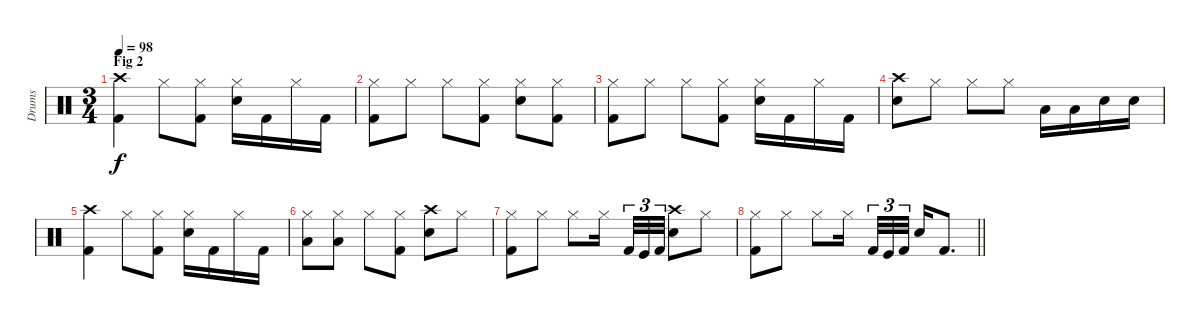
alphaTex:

\track ("Drums" "Drums") {instrument percussion}
\staff {score}
\articulation defaults
\ts (3 4)
\section ("" "Fig 2")
\tempo 98
\clef neutral
\ks c
("Crash high (hit)" "Kick (hit) 2").4{dy f} "Hi-Hat (closed)".8 ("Hi-Hat (closed)" "Kick (hit) 2").8 ("Hi-Hat (closed)" "Snare (hit) 2").16 "Kick (hit) 2".16 "Hi-Hat (closed)".16 "Kick (hit) 2".16 |
("Hi-Hat (closed)" "Kick (hit) 2").8 "Hi-Hat (closed)".8 "Hi-Hat (closed)".8 ("Hi-Hat (closed)" "Kick (hit) 2").8 ("Hi-Hat (closed)" "Snare (hit) 2").8 ("Hi-Hat (closed)" "Kick (hit) 2").8 |
("Hi-Hat (closed)" "Kick (hit) 2").8 "Hi-Hat (closed)".8 "Hi-Hat (closed)".8 ("Hi-Hat (closed)" "Kick (hit) 2").8 ("Hi-Hat (closed)" "Snare (hit) 2").16 "Kick (hit) 2".16 "Hi-Hat (closed)".16 "Kick (hit) 2".16 |
("Crash high (hit)" "Snare (hit) 2").8 "Hi-Hat (closed)".8 "Hi-Hat (closed)".8 "Hi-Hat (closed)".8 "Low Tom (hit)".16 "Low Tom (hit)".16 "Snare (hit) 2".16 "Snare (hit) 2".16 |
("Crash high (hit)" "Kick (hit) 2").4 "Hi-Hat (closed)".8 ("Hi-Hat (closed)" "Kick (hit) 2").8 ("Hi-Hat (closed)" "Snare (hit) 2").16 "Kick (hit) 2".16 "Hi-Hat (closed)".16 "Kick (hit) 2".16 |
("Hi-Hat (closed)" "Low Tom (hit)").8 ("Hi-Hat (closed)" "Low Tom (hit)").8 "Hi-Hat (closed)".8 ("Hi-Hat (closed)" "Kick (hit) 2").8 ("Crash high (hit)" "Snare (hit) 2").8 "Hi-Hat (closed)".8 |
("Hi-Hat (closed)" "Kick (hit) 2").8 "Hi-Hat (closed)".8 "Hi-Hat (closed)".8 "Hi-Hat (closed)".16 "Kick (hit) 2".32{tu (3 2)} "Kick (hit)".32{tu (3 2)} "Kick (hit) 2".32{tu (3 2)} ("Crash high (hit)" "Snare (hit) 2").8 "Hi-Hat (closed)".8 |
\barLineRight lightlight
("Hi-Hat (closed)" "Kick (hit) 2").8 "Hi-Hat (closed)".8 "Hi-Hat (closed)".8 "Hi-Hat (closed)".16 "Kick (hit) 2".32{tu (3 2)} "Kick (hit)".32{tu (3 2)} "Kick (hit) 2".32{tu (3 2)} "Snare (hit) 2".16 "Kick (hit) 2".8{d}
